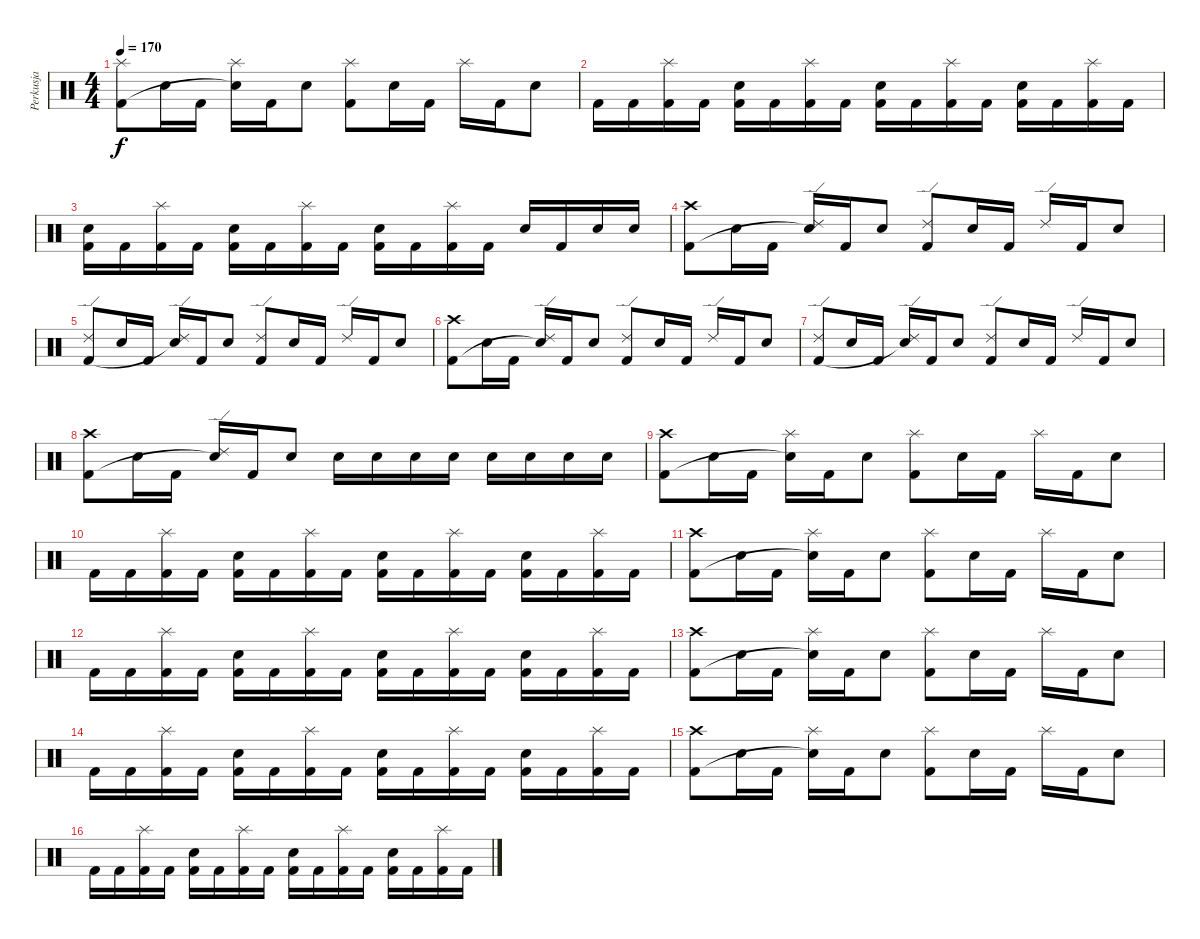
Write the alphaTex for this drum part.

\track ("Perkusja" "Perkusja") {instrument percussion}
\staff {score}
\articulation defaults
\ts (4 4)
\tempo 170
\clef neutral
\ks c
("Splash (hit)" "Kick (hit) 2").8{dy f} "Snare (hit) 2".16 "Kick (hit) 2".16 ("Splash (hit)" "Snare (hit)"{t}).16 "Kick (hit) 2".16 "Snare (hit) 2".8 ("Splash (hit)" "Kick (hit) 2").8 "Snare (hit) 2".16 "Kick (hit) 2".16 "Splash (hit)".16 "Kick (hit) 2".16 "Snare (hit) 2".8 |
"Kick (hit) 2".16 "Kick (hit) 2".16 ("Splash (hit)" "Kick (hit) 2").16 "Kick (hit) 2".16 ("Snare (hit) 2" "Kick (hit) 2").16 "Kick (hit) 2".16 ("Splash (hit)" "Kick (hit) 2").16 "Kick (hit) 2".16 ("Snare (hit) 2" "Kick (hit) 2").16 "Kick (hit) 2".16 ("Splash (hit)" "Kick (hit) 2").16 "Kick (hit) 2".16 ("Snare (hit) 2" "Kick (hit) 2").16 "Kick (hit) 2".16 ("Splash (hit)" "Kick (hit) 2").16 "Kick (hit) 2".16 |
("Snare (hit) 2" "Kick (hit) 2").16 "Kick (hit) 2".16 ("Splash (hit)" "Kick (hit) 2").16 "Kick (hit) 2".16 ("Snare (hit) 2" "Kick (hit) 2").16 "Kick (hit) 2".16 ("Splash (hit)" "Kick (hit) 2").16 "Kick (hit) 2".16 ("Snare (hit) 2" "Kick (hit) 2").16 "Kick (hit) 2".16 ("Splash (hit)" "Kick (hit) 2").16 "Kick (hit) 2".16 "Snare (hit) 2".16 "Kick (hit) 2".16 "Snare (hit) 2".16 "Snare (hit) 2".16 |
("Crash high (hit)" "Kick (hit) 2").8 "Snare (hit) 2".16 "Kick (hit) 2".16 ("Ride (edge) 2" "Snare (hit)"{t}).16 "Kick (hit) 2".16 "Snare (hit) 2".8 ("Ride (edge) 2" "Kick (hit) 2").8 "Snare (hit) 2".16 "Kick (hit) 2".16 "Ride (edge) 2".16 "Kick (hit) 2".16 "Snare (hit) 2".8 |
("Ride (edge) 2" "Kick (hit) 2").8 "Snare (hit) 2".16 "Kick (hit) 2".16 ("Ride (edge) 2" "Snare (hit)"{t}).16 "Kick (hit) 2".16 "Snare (hit) 2".8 ("Ride (edge) 2" "Kick (hit) 2").8 "Snare (hit) 2".16 "Kick (hit) 2".16 "Ride (edge) 2".16 "Kick (hit) 2".16 "Snare (hit) 2".8 |
("Crash high (hit)" "Kick (hit) 2").8 "Snare (hit) 2".16 "Kick (hit) 2".16 ("Ride (edge) 2" "Snare (hit)"{t}).16 "Kick (hit) 2".16 "Snare (hit) 2".8 ("Ride (edge) 2" "Kick (hit) 2").8 "Snare (hit) 2".16 "Kick (hit) 2".16 "Ride (edge) 2".16 "Kick (hit) 2".16 "Snare (hit) 2".8 |
("Ride (edge) 2" "Kick (hit) 2").8 "Snare (hit) 2".16 "Kick (hit) 2".16 ("Ride (edge) 2" "Snare (hit)"{t}).16 "Kick (hit) 2".16 "Snare (hit) 2".8 ("Ride (edge) 2" "Kick (hit) 2").8 "Snare (hit) 2".16 "Kick (hit) 2".16 "Ride (edge) 2".16 "Kick (hit) 2".16 "Snare (hit) 2".8 |
("Crash high (hit)" "Kick (hit) 2").8 "Snare (hit) 2".16 "Kick (hit) 2".16 ("Ride (edge) 2" "Snare (hit)"{t}).16 "Kick (hit) 2".16 "Snare (hit) 2".8 "Snare (hit) 2".16 "Snare (hit) 2".16 "Snare (hit) 2".16 "Snare (hit) 2".16 "Snare (hit) 2".16 "Snare (hit) 2".16 "Snare (hit) 2".16 "Snare (hit) 2".16 |
("Crash high (hit)" "Kick (hit) 2").8 "Snare (hit) 2".16 "Kick (hit) 2".16 ("Splash (hit)" "Snare (hit)"{t}).16 "Kick (hit) 2".16 "Snare (hit) 2".8 ("Splash (hit)" "Kick (hit) 2").8 "Snare (hit) 2".16 "Kick (hit) 2".16 "Splash (hit)".16 "Kick (hit) 2".16 "Snare (hit) 2".8 |
"Kick (hit) 2".16 "Kick (hit) 2".16 ("Splash (hit)" "Kick (hit) 2").16 "Kick (hit) 2".16 ("Snare (hit) 2" "Kick (hit) 2").16 "Kick (hit) 2".16 ("Splash (hit)" "Kick (hit) 2").16 "Kick (hit) 2".16 ("Snare (hit) 2" "Kick (hit) 2").16 "Kick (hit) 2".16 ("Splash (hit)" "Kick (hit) 2").16 "Kick (hit) 2".16 ("Snare (hit) 2" "Kick (hit) 2").16 "Kick (hit) 2".16 ("Splash (hit)" "Kick (hit) 2").16 "Kick (hit) 2".16 |
("Crash high (hit)" "Kick (hit) 2").8 "Snare (hit) 2".16 "Kick (hit) 2".16 ("Splash (hit)" "Snare (hit)"{t}).16 "Kick (hit) 2".16 "Snare (hit) 2".8 ("Splash (hit)" "Kick (hit) 2").8 "Snare (hit) 2".16 "Kick (hit) 2".16 "Splash (hit)".16 "Kick (hit) 2".16 "Snare (hit) 2".8 |
"Kick (hit) 2".16 "Kick (hit) 2".16 ("Splash (hit)" "Kick (hit) 2").16 "Kick (hit) 2".16 ("Snare (hit) 2" "Kick (hit) 2").16 "Kick (hit) 2".16 ("Splash (hit)" "Kick (hit) 2").16 "Kick (hit) 2".16 ("Snare (hit) 2" "Kick (hit) 2").16 "Kick (hit) 2".16 ("Splash (hit)" "Kick (hit) 2").16 "Kick (hit) 2".16 ("Snare (hit) 2" "Kick (hit) 2").16 "Kick (hit) 2".16 ("Splash (hit)" "Kick (hit) 2").16 "Kick (hit) 2".16 |
("Crash high (hit)" "Kick (hit) 2").8 "Snare (hit) 2".16 "Kick (hit) 2".16 ("Splash (hit)" "Snare (hit)"{t}).16 "Kick (hit) 2".16 "Snare (hit) 2".8 ("Splash (hit)" "Kick (hit) 2").8 "Snare (hit) 2".16 "Kick (hit) 2".16 "Splash (hit)".16 "Kick (hit) 2".16 "Snare (hit) 2".8 |
"Kick (hit) 2".16 "Kick (hit) 2".16 ("Splash (hit)" "Kick (hit) 2").16 "Kick (hit) 2".16 ("Snare (hit) 2" "Kick (hit) 2").16 "Kick (hit) 2".16 ("Splash (hit)" "Kick (hit) 2").16 "Kick (hit) 2".16 ("Snare (hit) 2" "Kick (hit) 2").16 "Kick (hit) 2".16 ("Splash (hit)" "Kick (hit) 2").16 "Kick (hit) 2".16 ("Snare (hit) 2" "Kick (hit) 2").16 "Kick (hit) 2".16 ("Splash (hit)" "Kick (hit) 2").16 "Kick (hit) 2".16 |
("Crash high (hit)" "Kick (hit) 2").8 "Snare (hit) 2".16 "Kick (hit) 2".16 ("Splash (hit)" "Snare (hit)"{t}).16 "Kick (hit) 2".16 "Snare (hit) 2".8 ("Splash (hit)" "Kick (hit) 2").8 "Snare (hit) 2".16 "Kick (hit) 2".16 "Splash (hit)".16 "Kick (hit) 2".16 "Snare (hit) 2".8 |
"Kick (hit) 2".16 "Kick (hit) 2".16 ("Splash (hit)" "Kick (hit) 2").16 "Kick (hit) 2".16 ("Snare (hit) 2" "Kick (hit) 2").16 "Kick (hit) 2".16 ("Splash (hit)" "Kick (hit) 2").16 "Kick (hit) 2".16 ("Snare (hit) 2" "Kick (hit) 2").16 "Kick (hit) 2".16 ("Splash (hit)" "Kick (hit) 2").16 "Kick (hit) 2".16 ("Snare (hit) 2" "Kick (hit) 2").16 "Kick (hit) 2".16 ("Splash (hit)" "Kick (hit) 2").16 "Kick (hit) 2".16
